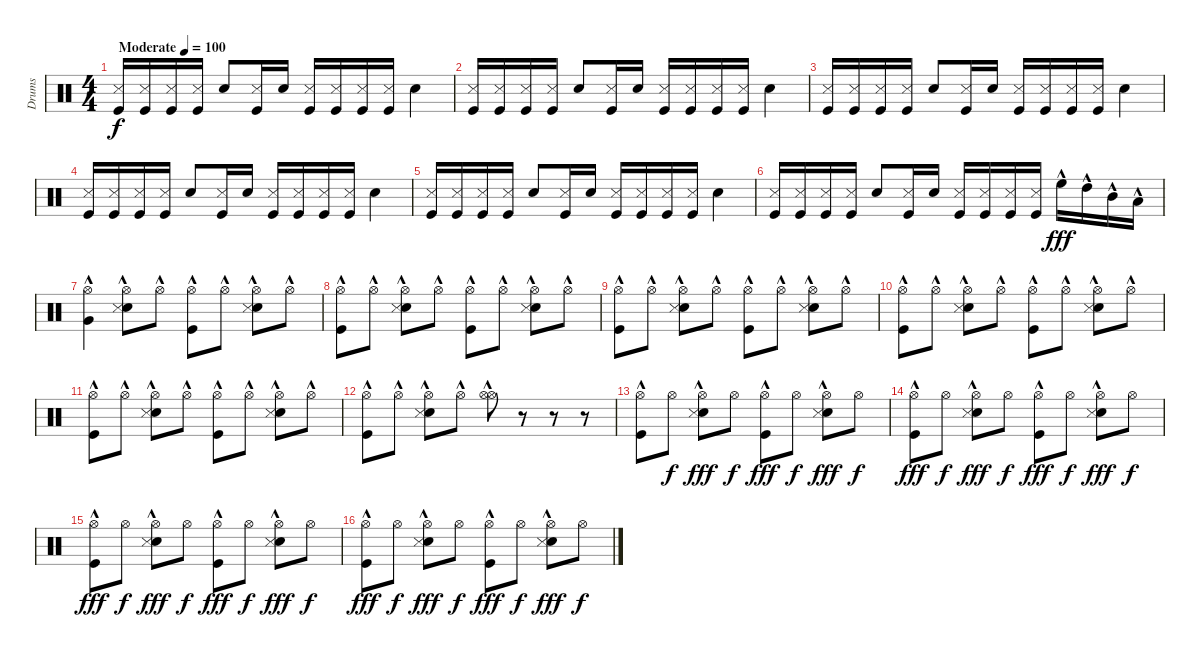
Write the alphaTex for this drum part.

\track ("Drums" "Drums") {instrument percussion}
\staff {score}
\articulation defaults
\ts (4 4)
\tempo (100 "Moderate")
\clef neutral
\ks c
("Metronome (hit)" "Kick (hit)").16{dy f} ("Metronome (hit)" "Kick (hit)").16 ("Metronome (hit)" "Kick (hit)").16 ("Metronome (hit)" "Kick (hit)").16 "Snare (hit) 2".8 ("Kick (hit)" "Metronome (hit)").16{beam Up} "Snare (hit) 2".16{beam Up} ("Kick (hit)" "Metronome (hit)").16{beam Up} ("Metronome (hit)" "Kick (hit)").16 ("Metronome (hit)" "Kick (hit)").16 ("Metronome (hit)" "Kick (hit)").16 "Snare (hit) 2".4 |
("Metronome (hit)" "Kick (hit)").16 ("Metronome (hit)" "Kick (hit)").16 ("Metronome (hit)" "Kick (hit)").16 ("Metronome (hit)" "Kick (hit)").16 "Snare (hit) 2".8 ("Kick (hit)" "Metronome (hit)").16{beam Up} "Snare (hit) 2".16{beam Up} ("Kick (hit)" "Metronome (hit)").16{beam Up} ("Metronome (hit)" "Kick (hit)").16 ("Metronome (hit)" "Kick (hit)").16 ("Metronome (hit)" "Kick (hit)").16 "Snare (hit) 2".4 |
("Metronome (hit)" "Kick (hit)").16 ("Metronome (hit)" "Kick (hit)").16 ("Metronome (hit)" "Kick (hit)").16 ("Metronome (hit)" "Kick (hit)").16 "Snare (hit) 2".8 ("Kick (hit)" "Metronome (hit)").16{beam Up} "Snare (hit) 2".16{beam Up} ("Kick (hit)" "Metronome (hit)").16{beam Up} ("Metronome (hit)" "Kick (hit)").16 ("Metronome (hit)" "Kick (hit)").16 ("Metronome (hit)" "Kick (hit)").16 "Snare (hit) 2".4 |
("Metronome (hit)" "Kick (hit)").16 ("Metronome (hit)" "Kick (hit)").16 ("Metronome (hit)" "Kick (hit)").16 ("Metronome (hit)" "Kick (hit)").16 "Snare (hit) 2".8 ("Kick (hit)" "Metronome (hit)").16{beam Up} "Snare (hit) 2".16{beam Up} ("Kick (hit)" "Metronome (hit)").16{beam Up} ("Metronome (hit)" "Kick (hit)").16 ("Metronome (hit)" "Kick (hit)").16 ("Metronome (hit)" "Kick (hit)").16 "Snare (hit) 2".4 |
("Metronome (hit)" "Kick (hit)").16 ("Metronome (hit)" "Kick (hit)").16 ("Metronome (hit)" "Kick (hit)").16 ("Metronome (hit)" "Kick (hit)").16 "Snare (hit) 2".8 ("Kick (hit)" "Metronome (hit)").16{beam Up} "Snare (hit) 2".16{beam Up} ("Kick (hit)" "Metronome (hit)").16{beam Up} ("Metronome (hit)" "Kick (hit)").16 ("Metronome (hit)" "Kick (hit)").16 ("Metronome (hit)" "Kick (hit)").16 "Snare (hit) 2".4 |
("Metronome (hit)" "Kick (hit)").16 ("Metronome (hit)" "Kick (hit)").16 ("Metronome (hit)" "Kick (hit)").16 ("Metronome (hit)" "Kick (hit)").16 "Snare (hit) 2".8 ("Kick (hit)" "Metronome (hit)").16{beam Up} "Snare (hit) 2".16{beam Up} ("Kick (hit)" "Metronome (hit)").16{beam Up} ("Metronome (hit)" "Kick (hit)").16 ("Metronome (hit)" "Kick (hit)").16 ("Metronome (hit)" "Kick (hit)").16 "High Floor Tom (hit)"{hac}.16{dy fff} "High Tom (hit)"{hac}.16 "Mid Tom (hit)"{hac}.16 "Low Tom (hit)"{hac}.16 |
("Very Low Tom (hit)"{hac} "Hi-Hat (open)"{hac}).4 ("Hi-Hat (open)"{hac} "Snare (hit) 2"{hac} "Metronome (hit)").8 "Hi-Hat (open)"{hac}.8 ("Hi-Hat (open)"{hac} "Kick (hit)"{hac}).8 "Hi-Hat (open)"{hac}.8 ("Hi-Hat (open)"{hac} "Snare (hit) 2"{hac} "Metronome (hit)").8 "Hi-Hat (open)"{hac}.8 |
("Hi-Hat (open)"{hac} "Kick (hit)"{hac}).8 "Hi-Hat (open)"{hac}.8 ("Hi-Hat (open)"{hac} "Snare (hit) 2"{hac} "Metronome (hit)").8 "Hi-Hat (open)"{hac}.8 ("Hi-Hat (open)"{hac} "Kick (hit)"{hac}).8 "Hi-Hat (open)"{hac}.8 ("Hi-Hat (open)"{hac} "Snare (hit) 2"{hac} "Metronome (hit)").8 "Hi-Hat (open)"{hac}.8 |
("Hi-Hat (open)"{hac} "Kick (hit)"{hac}).8 "Hi-Hat (open)"{hac}.8 ("Hi-Hat (open)"{hac} "Snare (hit) 2"{hac} "Metronome (hit)").8 "Hi-Hat (open)"{hac}.8 ("Hi-Hat (open)"{hac} "Kick (hit)"{hac}).8 "Hi-Hat (open)"{hac}.8 ("Hi-Hat (open)"{hac} "Snare (hit) 2"{hac} "Metronome (hit)").8 "Hi-Hat (open)"{hac}.8 |
("Hi-Hat (open)"{hac} "Kick (hit)"{hac}).8 "Hi-Hat (open)"{hac}.8 ("Hi-Hat (open)"{hac} "Snare (hit) 2"{hac} "Metronome (hit)").8 "Hi-Hat (open)"{hac}.8 ("Hi-Hat (open)"{hac} "Kick (hit)"{hac}).8 "Hi-Hat (open)"{hac}.8 ("Hi-Hat (open)"{hac} "Snare (hit) 2"{hac} "Metronome (hit)").8 "Hi-Hat (open)"{hac}.8 |
("Hi-Hat (open)"{hac} "Kick (hit)"{hac}).8 "Hi-Hat (open)"{hac}.8 ("Hi-Hat (open)"{hac} "Snare (hit) 2"{hac} "Metronome (hit)").8 "Hi-Hat (open)"{hac}.8 ("Hi-Hat (open)"{hac} "Kick (hit)"{hac}).8 "Hi-Hat (open)"{hac}.8 ("Hi-Hat (open)"{hac} "Snare (hit) 2"{hac} "Metronome (hit)").8 "Hi-Hat (open)"{hac}.8 |
("Hi-Hat (open)"{hac} "Kick (hit)"{hac}).8 "Hi-Hat (open)"{hac}.8 ("Hi-Hat (open)"{hac} "Snare (hit) 2"{hac} "Metronome (hit)").8 "Hi-Hat (open)"{hac}.8 ("Hi-Hat (open)"{hac} "Hi-Hat (open)").8 r.8 r.8 r.8 |
("Hi-Hat (open)" "Kick (hit)"{hac}).8 "Hi-Hat (open)".8{dy f} ("Hi-Hat (open)" "Snare (hit) 2"{hac} "Metronome (hit)").8{dy fff} "Hi-Hat (open)".8{dy f} ("Hi-Hat (open)" "Kick (hit)"{hac}).8{dy fff} "Hi-Hat (open)".8{dy f} ("Hi-Hat (open)" "Snare (hit) 2"{hac} "Metronome (hit)").8{dy fff} "Hi-Hat (open)".8{dy f} |
("Hi-Hat (open)" "Kick (hit)"{hac}).8{dy fff} "Hi-Hat (open)".8{dy f} ("Hi-Hat (open)" "Snare (hit) 2"{hac} "Metronome (hit)").8{dy fff} "Hi-Hat (open)".8{dy f} ("Hi-Hat (open)" "Kick (hit)"{hac}).8{dy fff} "Hi-Hat (open)".8{dy f} ("Hi-Hat (open)" "Snare (hit) 2"{hac} "Metronome (hit)").8{dy fff} "Hi-Hat (open)".8{dy f} |
("Hi-Hat (open)" "Kick (hit)"{hac}).8{dy fff} "Hi-Hat (open)".8{dy f} ("Hi-Hat (open)" "Snare (hit) 2"{hac} "Metronome (hit)").8{dy fff} "Hi-Hat (open)".8{dy f} ("Hi-Hat (open)" "Kick (hit)"{hac}).8{dy fff} "Hi-Hat (open)".8{dy f} ("Hi-Hat (open)" "Snare (hit) 2"{hac} "Metronome (hit)").8{dy fff} "Hi-Hat (open)".8{dy f} |
("Hi-Hat (open)" "Kick (hit)"{hac}).8{dy fff} "Hi-Hat (open)".8{dy f} ("Hi-Hat (open)" "Snare (hit) 2"{hac} "Metronome (hit)").8{dy fff} "Hi-Hat (open)".8{dy f} ("Hi-Hat (open)" "Kick (hit)"{hac}).8{dy fff} "Hi-Hat (open)".8{dy f} ("Hi-Hat (open)" "Snare (hit) 2"{hac} "Metronome (hit)").8{dy fff} "Hi-Hat (open)".8{dy f}
